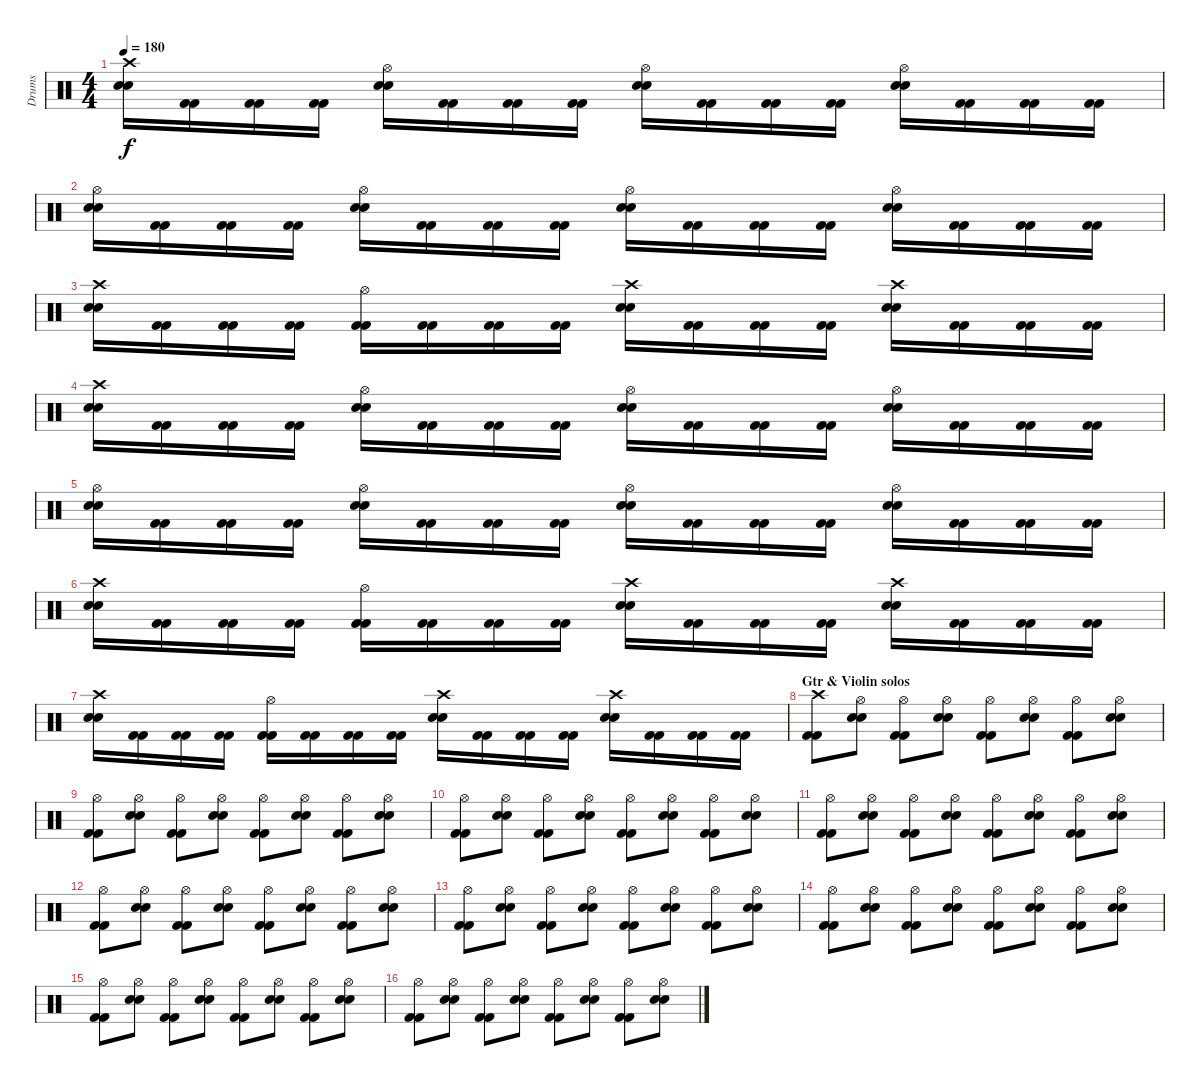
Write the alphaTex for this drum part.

\track ("Drums" "Drums") {instrument percussion}
\staff {score}
\articulation defaults
\ts (4 4)
\tempo 180
\clef neutral
\ks c
("Crash high (hit)" "Snare (hit) 2" "Snare (hit) 2").16{dy f} ("Kick (hit) 2" "Kick (hit) 2").16 ("Kick (hit) 2" "Kick (hit) 2").16 ("Kick (hit) 2" "Kick (hit) 2").16 ("Hi-Hat (open)" "Snare (hit) 2" "Snare (hit) 2").16 ("Kick (hit) 2" "Kick (hit) 2").16 ("Kick (hit) 2" "Kick (hit) 2").16 ("Kick (hit) 2" "Kick (hit) 2").16 ("Hi-Hat (open)" "Snare (hit) 2" "Snare (hit) 2").16 ("Kick (hit) 2" "Kick (hit) 2").16 ("Kick (hit) 2" "Kick (hit) 2").16 ("Kick (hit) 2" "Kick (hit) 2").16 ("Hi-Hat (open)" "Snare (hit) 2" "Snare (hit) 2").16 ("Kick (hit) 2" "Kick (hit) 2").16 ("Kick (hit) 2" "Kick (hit) 2").16 ("Kick (hit) 2" "Kick (hit) 2").16 |
("Hi-Hat (open)" "Snare (hit) 2" "Snare (hit) 2").16 ("Kick (hit) 2" "Kick (hit) 2").16 ("Kick (hit) 2" "Kick (hit) 2").16 ("Kick (hit) 2" "Kick (hit) 2").16 ("Hi-Hat (open)" "Snare (hit) 2" "Snare (hit) 2").16 ("Kick (hit) 2" "Kick (hit) 2").16 ("Kick (hit) 2" "Kick (hit) 2").16 ("Kick (hit) 2" "Kick (hit) 2").16 ("Hi-Hat (open)" "Snare (hit) 2" "Snare (hit) 2").16 ("Kick (hit) 2" "Kick (hit) 2").16 ("Kick (hit) 2" "Kick (hit) 2").16 ("Kick (hit) 2" "Kick (hit) 2").16 ("Hi-Hat (open)" "Snare (hit) 2" "Snare (hit) 2").16 ("Kick (hit) 2" "Kick (hit) 2").16 ("Kick (hit) 2" "Kick (hit) 2").16 ("Kick (hit) 2" "Kick (hit) 2").16 |
("Crash high (hit)" "Snare (hit) 2" "Snare (hit) 2").16 ("Kick (hit) 2" "Kick (hit) 2").16 ("Kick (hit) 2" "Kick (hit) 2").16 ("Kick (hit) 2" "Kick (hit) 2").16 ("Hi-Hat (open)" "Kick (hit) 2" "Kick (hit) 2").16 ("Kick (hit) 2" "Kick (hit) 2").16 ("Kick (hit) 2" "Kick (hit) 2").16 ("Kick (hit) 2" "Kick (hit) 2").16 ("Crash high (hit)" "Snare (hit) 2" "Snare (hit) 2").16 ("Kick (hit) 2" "Kick (hit) 2").16 ("Kick (hit) 2" "Kick (hit) 2").16 ("Kick (hit) 2" "Kick (hit) 2").16 ("Crash high (hit)" "Snare (hit) 2" "Snare (hit) 2").16 ("Kick (hit) 2" "Kick (hit) 2").16 ("Kick (hit) 2" "Kick (hit) 2").16 ("Kick (hit) 2" "Kick (hit) 2").16 |
("Crash high (hit)" "Snare (hit) 2" "Snare (hit) 2").16 ("Kick (hit) 2" "Kick (hit) 2").16 ("Kick (hit) 2" "Kick (hit) 2").16 ("Kick (hit) 2" "Kick (hit) 2").16 ("Hi-Hat (open)" "Snare (hit) 2" "Snare (hit) 2").16 ("Kick (hit) 2" "Kick (hit) 2").16 ("Kick (hit) 2" "Kick (hit) 2").16 ("Kick (hit) 2" "Kick (hit) 2").16 ("Hi-Hat (open)" "Snare (hit) 2" "Snare (hit) 2").16 ("Kick (hit) 2" "Kick (hit) 2").16 ("Kick (hit) 2" "Kick (hit) 2").16 ("Kick (hit) 2" "Kick (hit) 2").16 ("Hi-Hat (open)" "Snare (hit) 2" "Snare (hit) 2").16 ("Kick (hit) 2" "Kick (hit) 2").16 ("Kick (hit) 2" "Kick (hit) 2").16 ("Kick (hit) 2" "Kick (hit) 2").16 |
("Hi-Hat (open)" "Snare (hit) 2" "Snare (hit) 2").16 ("Kick (hit) 2" "Kick (hit) 2").16 ("Kick (hit) 2" "Kick (hit) 2").16 ("Kick (hit) 2" "Kick (hit) 2").16 ("Hi-Hat (open)" "Snare (hit) 2" "Snare (hit) 2").16 ("Kick (hit) 2" "Kick (hit) 2").16 ("Kick (hit) 2" "Kick (hit) 2").16 ("Kick (hit) 2" "Kick (hit) 2").16 ("Hi-Hat (open)" "Snare (hit) 2" "Snare (hit) 2").16 ("Kick (hit) 2" "Kick (hit) 2").16 ("Kick (hit) 2" "Kick (hit) 2").16 ("Kick (hit) 2" "Kick (hit) 2").16 ("Hi-Hat (open)" "Snare (hit) 2" "Snare (hit) 2").16 ("Kick (hit) 2" "Kick (hit) 2").16 ("Kick (hit) 2" "Kick (hit) 2").16 ("Kick (hit) 2" "Kick (hit) 2").16 |
("Crash high (hit)" "Snare (hit) 2" "Snare (hit) 2").16 ("Kick (hit) 2" "Kick (hit) 2").16 ("Kick (hit) 2" "Kick (hit) 2").16 ("Kick (hit) 2" "Kick (hit) 2").16 ("Hi-Hat (open)" "Kick (hit) 2" "Kick (hit) 2").16 ("Kick (hit) 2" "Kick (hit) 2").16 ("Kick (hit) 2" "Kick (hit) 2").16 ("Kick (hit) 2" "Kick (hit) 2").16 ("Crash high (hit)" "Snare (hit) 2" "Snare (hit) 2").16 ("Kick (hit) 2" "Kick (hit) 2").16 ("Kick (hit) 2" "Kick (hit) 2").16 ("Kick (hit) 2" "Kick (hit) 2").16 ("Crash high (hit)" "Snare (hit) 2" "Snare (hit) 2").16 ("Kick (hit) 2" "Kick (hit) 2").16 ("Kick (hit) 2" "Kick (hit) 2").16 ("Kick (hit) 2" "Kick (hit) 2").16 |
("Crash high (hit)" "Snare (hit) 2" "Snare (hit) 2").16 ("Kick (hit) 2" "Kick (hit) 2").16 ("Kick (hit) 2" "Kick (hit) 2").16 ("Kick (hit) 2" "Kick (hit) 2").16 ("Hi-Hat (open)" "Kick (hit) 2" "Kick (hit) 2").16 ("Kick (hit) 2" "Kick (hit) 2").16 ("Kick (hit) 2" "Kick (hit) 2").16 ("Kick (hit) 2" "Kick (hit) 2").16 ("Crash high (hit)" "Snare (hit) 2" "Snare (hit) 2").16 ("Kick (hit) 2" "Kick (hit) 2").16 ("Kick (hit) 2" "Kick (hit) 2").16 ("Kick (hit) 2" "Kick (hit) 2").16 ("Crash high (hit)" "Snare (hit) 2" "Snare (hit) 2").16 ("Kick (hit) 2" "Kick (hit) 2").16 ("Kick (hit) 2" "Kick (hit) 2").16 ("Kick (hit) 2" "Kick (hit) 2").16 |
\section ("" "Gtr & Violin solos")
("Crash high (hit)" "Kick (hit) 2" "Kick (hit) 2").8 ("Hi-Hat (open)" "Snare (hit) 2" "Snare (hit) 2").8 ("Hi-Hat (open)" "Kick (hit) 2" "Kick (hit) 2").8 ("Hi-Hat (open)" "Snare (hit) 2" "Snare (hit) 2").8 ("Hi-Hat (open)" "Kick (hit) 2" "Kick (hit) 2").8 ("Hi-Hat (open)" "Snare (hit) 2" "Snare (hit) 2").8 ("Hi-Hat (open)" "Kick (hit) 2" "Kick (hit) 2").8 ("Hi-Hat (open)" "Snare (hit) 2" "Snare (hit) 2").8 |
("Hi-Hat (open)" "Kick (hit) 2" "Kick (hit) 2").8 ("Hi-Hat (open)" "Snare (hit) 2" "Snare (hit) 2").8 ("Hi-Hat (open)" "Kick (hit) 2" "Kick (hit) 2").8 ("Hi-Hat (open)" "Snare (hit) 2" "Snare (hit) 2").8 ("Hi-Hat (open)" "Kick (hit) 2" "Kick (hit) 2").8 ("Hi-Hat (open)" "Snare (hit) 2" "Snare (hit) 2").8 ("Hi-Hat (open)" "Kick (hit) 2" "Kick (hit) 2").8 ("Hi-Hat (open)" "Snare (hit) 2" "Snare (hit) 2").8 |
("Hi-Hat (open)" "Kick (hit) 2" "Kick (hit) 2").8 ("Hi-Hat (open)" "Snare (hit) 2" "Snare (hit) 2").8 ("Hi-Hat (open)" "Kick (hit) 2" "Kick (hit) 2").8 ("Hi-Hat (open)" "Snare (hit) 2" "Snare (hit) 2").8 ("Hi-Hat (open)" "Kick (hit) 2" "Kick (hit) 2").8 ("Hi-Hat (open)" "Snare (hit) 2" "Snare (hit) 2").8 ("Hi-Hat (open)" "Kick (hit) 2" "Kick (hit) 2").8 ("Hi-Hat (open)" "Snare (hit) 2" "Snare (hit) 2").8 |
("Hi-Hat (open)" "Kick (hit) 2" "Kick (hit) 2").8 ("Hi-Hat (open)" "Snare (hit) 2" "Snare (hit) 2").8 ("Hi-Hat (open)" "Kick (hit) 2" "Kick (hit) 2").8 ("Hi-Hat (open)" "Snare (hit) 2" "Snare (hit) 2").8 ("Hi-Hat (open)" "Kick (hit) 2" "Kick (hit) 2").8 ("Hi-Hat (open)" "Snare (hit) 2" "Snare (hit) 2").8 ("Hi-Hat (open)" "Kick (hit) 2" "Kick (hit) 2").8 ("Hi-Hat (open)" "Snare (hit) 2" "Snare (hit) 2").8 |
("Hi-Hat (open)" "Kick (hit) 2" "Kick (hit) 2").8 ("Hi-Hat (open)" "Snare (hit) 2" "Snare (hit) 2").8 ("Hi-Hat (open)" "Kick (hit) 2" "Kick (hit) 2").8 ("Hi-Hat (open)" "Snare (hit) 2" "Snare (hit) 2").8 ("Hi-Hat (open)" "Kick (hit) 2" "Kick (hit) 2").8 ("Hi-Hat (open)" "Snare (hit) 2" "Snare (hit) 2").8 ("Hi-Hat (open)" "Kick (hit) 2" "Kick (hit) 2").8 ("Hi-Hat (open)" "Snare (hit) 2" "Snare (hit) 2").8 |
("Hi-Hat (open)" "Kick (hit) 2" "Kick (hit) 2").8 ("Hi-Hat (open)" "Snare (hit) 2" "Snare (hit) 2").8 ("Hi-Hat (open)" "Kick (hit) 2" "Kick (hit) 2").8 ("Hi-Hat (open)" "Snare (hit) 2" "Snare (hit) 2").8 ("Hi-Hat (open)" "Kick (hit) 2" "Kick (hit) 2").8 ("Hi-Hat (open)" "Snare (hit) 2" "Snare (hit) 2").8 ("Hi-Hat (open)" "Kick (hit) 2" "Kick (hit) 2").8 ("Hi-Hat (open)" "Snare (hit) 2" "Snare (hit) 2").8 |
("Hi-Hat (open)" "Kick (hit) 2" "Kick (hit) 2").8 ("Hi-Hat (open)" "Snare (hit) 2" "Snare (hit) 2").8 ("Hi-Hat (open)" "Kick (hit) 2" "Kick (hit) 2").8 ("Hi-Hat (open)" "Snare (hit) 2" "Snare (hit) 2").8 ("Hi-Hat (open)" "Kick (hit) 2" "Kick (hit) 2").8 ("Hi-Hat (open)" "Snare (hit) 2" "Snare (hit) 2").8 ("Hi-Hat (open)" "Kick (hit) 2" "Kick (hit) 2").8 ("Hi-Hat (open)" "Snare (hit) 2" "Snare (hit) 2").8 |
("Hi-Hat (open)" "Kick (hit) 2" "Kick (hit) 2").8 ("Hi-Hat (open)" "Snare (hit) 2" "Snare (hit) 2").8 ("Hi-Hat (open)" "Kick (hit) 2" "Kick (hit) 2").8 ("Hi-Hat (open)" "Snare (hit) 2" "Snare (hit) 2").8 ("Hi-Hat (open)" "Kick (hit) 2" "Kick (hit) 2").8 ("Hi-Hat (open)" "Snare (hit) 2" "Snare (hit) 2").8 ("Hi-Hat (open)" "Kick (hit) 2" "Kick (hit) 2").8 ("Hi-Hat (open)" "Snare (hit) 2" "Snare (hit) 2").8 |
("Hi-Hat (open)" "Kick (hit) 2" "Kick (hit) 2").8 ("Hi-Hat (open)" "Snare (hit) 2" "Snare (hit) 2").8 ("Hi-Hat (open)" "Kick (hit) 2" "Kick (hit) 2").8 ("Hi-Hat (open)" "Snare (hit) 2" "Snare (hit) 2").8 ("Hi-Hat (open)" "Kick (hit) 2" "Kick (hit) 2").8 ("Hi-Hat (open)" "Snare (hit) 2" "Snare (hit) 2").8 ("Hi-Hat (open)" "Kick (hit) 2" "Kick (hit) 2").8 ("Hi-Hat (open)" "Snare (hit) 2" "Snare (hit) 2").8
